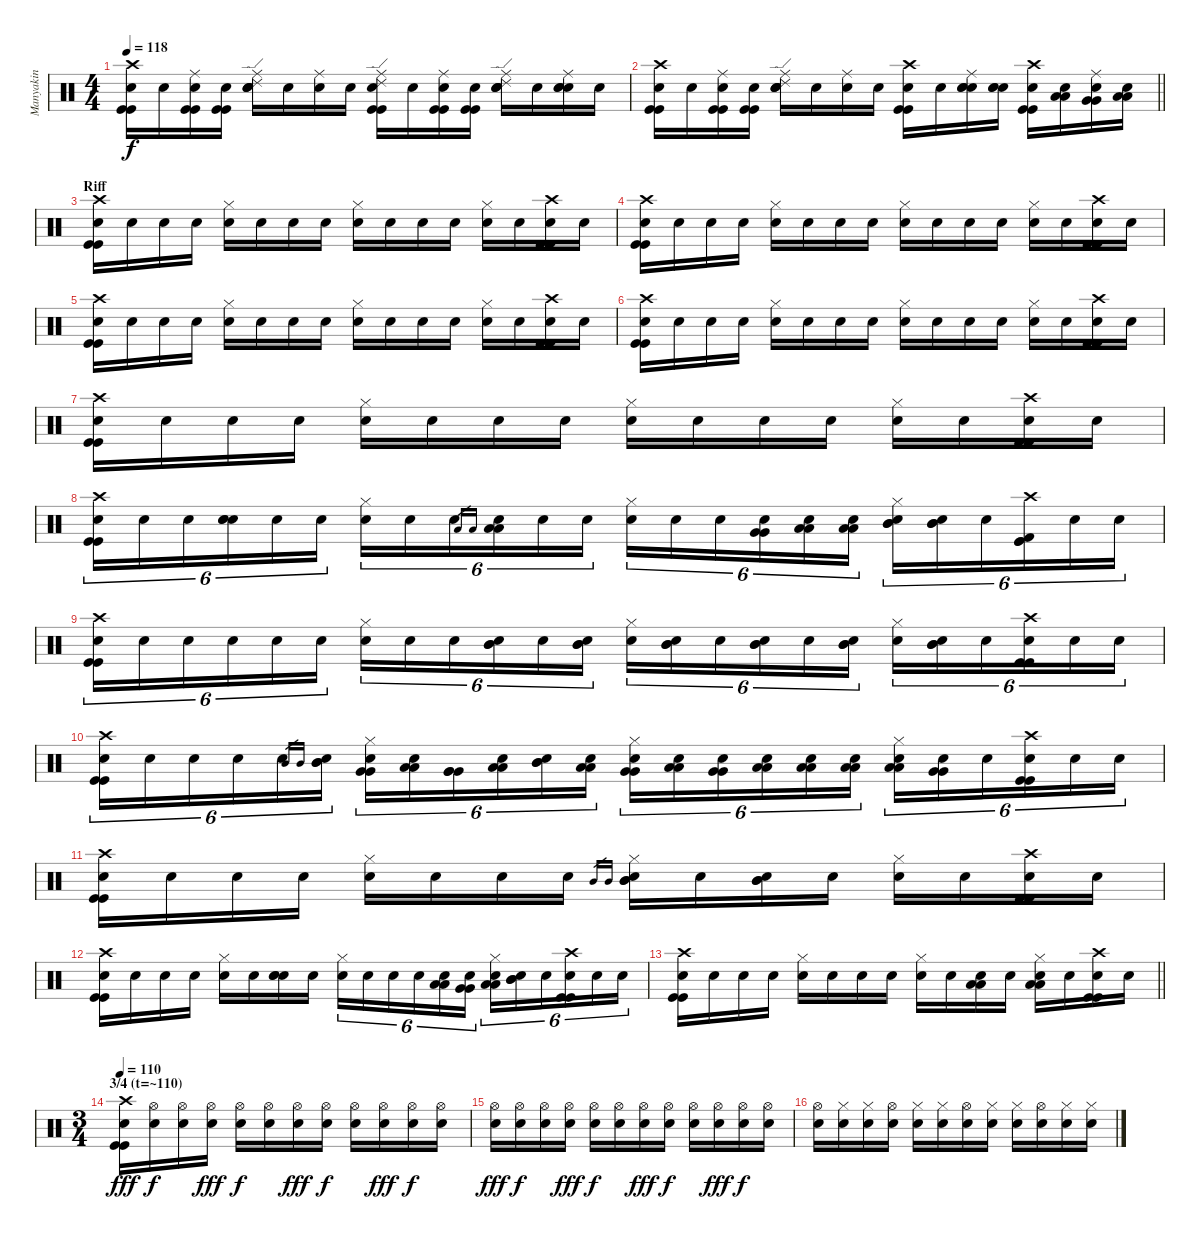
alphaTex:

\track ("Manyakin" "Manyakin") {instrument percussion}
\staff {score}
\articulation defaults
\ts (4 4)
\tempo 118
\clef neutral
\ks c
("Crash high (hit)" "Kick (hit)" "Kick (hit)" "Snare (hit)"{x}).16{dy f} "Snare (hit)"{x}.16 ("Ride (middle)" "Kick (hit)" "Kick (hit)" "Snare (hit)"{x}).16 ("Kick (hit)" "Kick (hit)" "Snare (hit)"{x}).16 ("Ride (middle)" "Ride (edge) 2" "Electric Snare (hit)" "Electric Snare (hit)" "Snare (hit)"{x}).16 "Snare (hit)"{x}.16 ("Ride (middle)" "Snare (hit)"{x}).16 "Snare (hit)"{x}.16 ("Ride (middle)" "Ride (edge) 2" "Kick (hit)" "Kick (hit)" "Snare (hit)"{x}).16 "Snare (hit)"{x}.16 ("Ride (middle)" "Kick (hit)" "Kick (hit)" "Snare (hit)"{x}).16 ("Kick (hit)" "Kick (hit)" "Snare (hit)"{x}).16 ("Ride (middle)" "Ride (edge) 2" "Electric Snare (hit)" "Electric Snare (hit)" "Snare (hit)"{x}).16 "Snare (hit)"{x}.16 ("Ride (middle)" "Electric Snare (hit)" "Electric Snare (hit)" "Snare (hit)"{x}).16 "Snare (hit)"{x}.16 |
\barLineRight lightlight
("Crash high (hit)" "Kick (hit)" "Kick (hit)" "Snare (hit)"{x}).16 "Snare (hit)"{x}.16 ("Ride (middle)" "Kick (hit)" "Kick (hit)" "Snare (hit)"{x}).16 ("Kick (hit)" "Kick (hit)" "Snare (hit)"{x}).16 ("Ride (middle)" "Ride (edge) 2" "Electric Snare (hit)" "Electric Snare (hit)" "Snare (hit)"{x}).16 "Snare (hit)"{x}.16 ("Ride (middle)" "Snare (hit)"{x}).16 "Snare (hit)"{x}.16 ("Crash high (hit)" "Kick (hit)" "Kick (hit)" "Snare (hit)"{x}).16 "Snare (hit)"{x}.16 ("Ride (middle)" "Electric Snare (hit)" "Electric Snare (hit)" "Snare (hit)"{x}).16 ("Electric Snare (hit)" "Electric Snare (hit)" "Snare (hit)"{x}).16 ("Crash high (hit)" "Kick (hit)" "Kick (hit)" "Snare (hit)"{x}).16 ("Low Tom (hit)" "Low Tom (hit)" "Snare (hit)"{x}).16 ("Ride (middle)" "Very Low Tom (hit)" "Very Low Tom (hit)" "Snare (hit)"{x}).16 ("Low Floor Tom (hit)" "Low Floor Tom (hit)" "Snare (hit)"{x}).16 |
\section ("" "Riff")
("Crash high (hit)" "Kick (hit)" "Kick (hit)" "Snare (hit)"{x}).16 "Snare (hit)"{x}.16 "Snare (hit)"{x}.16 "Snare (hit)"{x}.16 ("Hi-Hat (closed)" "Snare (hit)"{x}).16 "Snare (hit)"{x}.16 "Snare (hit)"{x}.16 "Snare (hit)"{x}.16 ("Hi-Hat (closed)" "Snare (hit)"{x}).16 "Snare (hit)"{x}.16 "Snare (hit)"{x}.16 "Snare (hit)"{x}.16 ("Hi-Hat (closed)" "Snare (hit)"{x}).16 "Snare (hit)"{x}.16 ("Crash high (hit)" "Kick (hit)" "Kick (hit)" "Snare (hit)"{x}).16 "Snare (hit)"{x}.16 |
("Crash high (hit)" "Kick (hit)" "Kick (hit)" "Snare (hit)"{x}).16 "Snare (hit)"{x}.16 "Snare (hit)"{x}.16 "Snare (hit)"{x}.16 ("Hi-Hat (closed)" "Snare (hit)"{x}).16 "Snare (hit)"{x}.16 "Snare (hit)"{x}.16 "Snare (hit)"{x}.16 ("Hi-Hat (closed)" "Snare (hit)"{x}).16 "Snare (hit)"{x}.16 "Snare (hit)"{x}.16 "Snare (hit)"{x}.16 ("Hi-Hat (closed)" "Snare (hit)"{x}).16 "Snare (hit)"{x}.16 ("Crash high (hit)" "Kick (hit)" "Kick (hit)" "Snare (hit)"{x}).16 "Snare (hit)"{x}.16 |
("Crash high (hit)" "Kick (hit)" "Kick (hit)" "Snare (hit)"{x}).16 "Snare (hit)"{x}.16 "Snare (hit)"{x}.16 "Snare (hit)"{x}.16 ("Hi-Hat (closed)" "Snare (hit)"{x}).16 "Snare (hit)"{x}.16 "Snare (hit)"{x}.16 "Snare (hit)"{x}.16 ("Hi-Hat (closed)" "Snare (hit)"{x}).16 "Snare (hit)"{x}.16 "Snare (hit)"{x}.16 "Snare (hit)"{x}.16 ("Hi-Hat (closed)" "Snare (hit)"{x}).16 "Snare (hit)"{x}.16 ("Crash high (hit)" "Kick (hit)" "Kick (hit)" "Snare (hit)"{x}).16 "Snare (hit)"{x}.16 |
("Crash high (hit)" "Kick (hit)" "Kick (hit)" "Snare (hit)"{x}).16 "Snare (hit)"{x}.16 "Snare (hit)"{x}.16 "Snare (hit)"{x}.16 ("Hi-Hat (closed)" "Snare (hit)"{x}).16 "Snare (hit)"{x}.16 "Snare (hit)"{x}.16 "Snare (hit)"{x}.16 ("Hi-Hat (closed)" "Snare (hit)"{x}).16 "Snare (hit)"{x}.16 "Snare (hit)"{x}.16 "Snare (hit)"{x}.16 ("Hi-Hat (closed)" "Snare (hit)"{x}).16 "Snare (hit)"{x}.16 ("Crash high (hit)" "Kick (hit)" "Kick (hit)" "Snare (hit)"{x}).16 "Snare (hit)"{x}.16 |
("Crash high (hit)" "Kick (hit)" "Kick (hit)" "Snare (hit)"{x}).16 "Snare (hit)"{x}.16 "Snare (hit)"{x}.16 "Snare (hit)"{x}.16 ("Hi-Hat (closed)" "Snare (hit)"{x}).16 "Snare (hit)"{x}.16 "Snare (hit)"{x}.16 "Snare (hit)"{x}.16 ("Hi-Hat (closed)" "Snare (hit)"{x}).16 "Snare (hit)"{x}.16 "Snare (hit)"{x}.16 "Snare (hit)"{x}.16 ("Hi-Hat (closed)" "Snare (hit)"{x}).16 "Snare (hit)"{x}.16 ("Crash high (hit)" "Kick (hit)" "Kick (hit)" "Snare (hit)"{x}).16 "Snare (hit)"{x}.16 |
("Crash high (hit)" "Kick (hit)" "Kick (hit)" "Snare (hit)"{x}).16{tu (6 4)} "Snare (hit)"{x}.16{tu (6 4)} "Snare (hit)"{x}.16{tu (6 4)} ("Electric Snare (hit)" "Electric Snare (hit)" "Snare (hit)"{x}).16{tu (6 4)} "Snare (hit)"{x}.16{tu (6 4)} "Snare (hit)"{x}.16{tu (6 4)} ("Hi-Hat (closed)" "Snare (hit)"{x}).16{tu (6 4)} "Snare (hit)"{x}.16{tu (6 4)} "Snare (hit)"{x}.16{tu (6 4)} "Low Tom (hit)".16{gr} "Low Tom (hit)".16{gr} ("Low Tom (hit)" "Low Tom (hit)" "Snare (hit)"{x}).16{tu (6 4)} "Snare (hit)"{x}.16{tu (6 4)} "Snare (hit)"{x}.16{tu (6 4)} ("Hi-Hat (closed)" "Snare (hit)"{x}).16{tu (6 4)} "Snare (hit)"{x}.16{tu (6 4)} "Snare (hit)"{x}.16{tu (6 4)} ("Very Low Tom (hit)" "Very Low Tom (hit)" "Snare (hit)"{x}).16{tu (6 4)} ("Low Tom (hit)" "Low Tom (hit)" "Snare (hit)"{x}).16{tu (6 4)} ("Low Tom (hit)" "Low Tom (hit)" "Snare (hit)"{x}).16{tu (6 4)} ("Hi-Hat (closed)" "Mid Tom (hit)" "Mid Tom (hit)" "Snare (hit)"{x}).16{tu (6 4)} ("Mid Tom (hit)" "Mid Tom (hit)" "Snare (hit)"{x}).16{tu (6 4)} "Snare (hit)"{x}.16{tu (6 4)} ("Crash high (hit)" "Kick (hit)" "Kick (hit)" "Kick (hit) 2"{x}).16{tu (6 4)} "Snare (hit)"{x}.16{tu (6 4)} "Snare (hit)"{x}.16{tu (6 4)} |
("Crash high (hit)" "Kick (hit)" "Kick (hit)" "Snare (hit)"{x}).16{tu (6 4)} "Snare (hit)"{x}.16{tu (6 4)} "Snare (hit)"{x}.16{tu (6 4)} "Snare (hit)"{x}.16{tu (6 4)} "Snare (hit)"{x}.16{tu (6 4)} "Snare (hit)"{x}.16{tu (6 4)} ("Hi-Hat (closed)" "Snare (hit)"{x}).16{tu (6 4)} "Snare (hit)"{x}.16{tu (6 4)} "Snare (hit)"{x}.16{tu (6 4)} ("Mid Tom (hit)" "Mid Tom (hit)" "Snare (hit)"{x}).16{tu (6 4)} "Snare (hit)"{x}.16{tu (6 4)} ("Mid Tom (hit)" "Mid Tom (hit)" "Snare (hit)"{x}).16{tu (6 4)} ("Hi-Hat (closed)" "Snare (hit)"{x}).16{tu (6 4)} ("Mid Tom (hit)" "Mid Tom (hit)" "Snare (hit)"{x}).16{tu (6 4)} "Snare (hit)"{x}.16{tu (6 4)} ("Mid Tom (hit)" "Mid Tom (hit)" "Snare (hit)"{x}).16{tu (6 4)} "Snare (hit)"{x}.16{tu (6 4)} ("Mid Tom (hit)" "Mid Tom (hit)" "Snare (hit)"{x}).16{tu (6 4)} ("Hi-Hat (closed)" "Snare (hit)"{x}).16{tu (6 4)} ("Mid Tom (hit)" "Mid Tom (hit)" "Snare (hit)"{x}).16{tu (6 4)} "Snare (hit)"{x}.16{tu (6 4)} ("Crash high (hit)" "Kick (hit)" "Kick (hit)" "Snare (hit)"{x}).16{tu (6 4)} "Snare (hit)"{x}.16{tu (6 4)} "Snare (hit)"{x}.16{tu (6 4)} |
("Crash high (hit)" "Kick (hit)" "Kick (hit)" "Snare (hit)"{x}).16{tu (6 4)} "Snare (hit)"{x}.16{tu (6 4)} "Snare (hit)"{x}.16{tu (6 4)} "Snare (hit)"{x}.16{tu (6 4)} "Snare (hit)"{x}.16{tu (6 4)} "Mid Tom (hit)".16{gr} "Mid Tom (hit)".16{gr} ("Mid Tom (hit)" "Mid Tom (hit)" "Snare (hit)"{x}).16{tu (6 4)} ("Hi-Hat (closed)" "Very Low Tom (hit)" "Very Low Tom (hit)" "Snare (hit)"{x}).16{tu (6 4)} ("Low Tom (hit)" "Low Tom (hit)" "Snare (hit)"{x}).16{tu (6 4)} ("Very Low Tom (hit)" "Very Low Tom (hit)" "Very Low Tom (hit)"{x}).16{tu (6 4)} ("Low Tom (hit)" "Low Tom (hit)" "Snare (hit)"{x}).16{tu (6 4)} ("Mid Tom (hit)" "Mid Tom (hit)" "Snare (hit)"{x}).16{tu (6 4)} ("Low Tom (hit)" "Low Tom (hit)" "Snare (hit)"{x}).16{tu (6 4)} ("Hi-Hat (closed)" "Very Low Tom (hit)" "Very Low Tom (hit)" "Snare (hit)"{x}).16{tu (6 4)} ("Low Floor Tom (hit)" "Low Floor Tom (hit)" "Snare (hit)"{x}).16{tu (6 4)} ("Very Low Tom (hit)" "Very Low Tom (hit)" "Snare (hit)"{x}).16{tu (6 4)} ("Low Tom (hit)" "Low Tom (hit)" "Snare (hit)"{x}).16{tu (6 4)} ("Low Floor Tom (hit)" "Low Floor Tom (hit)" "Snare (hit)"{x}).16{tu (6 4)} ("Low Tom (hit)" "Low Tom (hit)" "Snare (hit)"{x}).16{tu (6 4)} ("Hi-Hat (closed)" "Low Tom (hit)" "Low Tom (hit)" "Snare (hit)"{x}).16{tu (6 4)} ("Very Low Tom (hit)" "Very Low Tom (hit)" "Snare (hit)"{x}).16{tu (6 4)} "Snare (hit)"{x}.16{tu (6 4)} ("Crash high (hit)" "Kick (hit)" "Kick (hit)" "Snare (hit)"{x}).16{tu (6 4)} "Snare (hit)"{x}.16{tu (6 4)} "Snare (hit)"{x}.16{tu (6 4)} |
("Crash high (hit)" "Kick (hit)" "Kick (hit)" "Snare (hit)"{x}).16 "Snare (hit)"{x}.16 "Snare (hit)"{x}.16 "Snare (hit)"{x}.16 ("Hi-Hat (closed)" "Snare (hit)"{x}).16 "Snare (hit)"{x}.16 "Snare (hit)"{x}.16 "Snare (hit)"{x}.16 "Mid Tom (hit)".16{gr} "Mid Tom (hit)".16{gr} ("Hi-Hat (closed)" "Mid Tom (hit)" "Mid Tom (hit)" "Snare (hit)"{x}).16 "Snare (hit)"{x}.16 ("Mid Tom (hit)" "Mid Tom (hit)" "Snare (hit)"{x}).16 "Snare (hit)"{x}.16 ("Hi-Hat (closed)" "Snare (hit)"{x}).16 "Snare (hit)"{x}.16 ("Crash high (hit)" "Kick (hit)" "Kick (hit)" "Snare (hit)"{x}).16 "Snare (hit)"{x}.16 |
("Crash high (hit)" "Kick (hit)" "Kick (hit)" "Snare (hit)"{x}).16 "Snare (hit)"{x}.16 "Snare (hit)"{x}.16 "Snare (hit)"{x}.16 ("Hi-Hat (closed)" "Snare (hit)"{x}).16 "Snare (hit)"{x}.16 ("Electric Snare (hit)" "Electric Snare (hit)" "Snare (hit)"{x}).16 "Snare (hit)"{x}.16 ("Hi-Hat (closed)" "Snare (hit)"{x}).16{tu (6 4)} "Snare (hit)"{x}.16{tu (6 4)} "Snare (hit)"{x}.16{tu (6 4)} "Snare (hit)"{x}.16{tu (6 4)} ("Low Floor Tom (hit)" "Low Floor Tom (hit)" "Snare (hit)"{x}).16{tu (6 4)} ("Very Low Tom (hit)" "Very Low Tom (hit)" "Snare (hit)"{x}).16{tu (6 4)} ("Hi-Hat (closed)" "Low Tom (hit)" "Low Tom (hit)" "Snare (hit)"{x}).16{tu (6 4)} ("Mid Tom (hit)" "Mid Tom (hit)" "Snare (hit)"{x}).16{tu (6 4)} "Snare (hit)"{x}.16{tu (6 4)} ("Crash high (hit)" "Kick (hit)" "Kick (hit)" "Snare (hit)"{x}).16{tu (6 4)} "Snare (hit)"{x}.16{tu (6 4)} "Snare (hit)"{x}.16{tu (6 4)} |
\barLineRight lightlight
("Crash high (hit)" "Kick (hit)" "Kick (hit)" "Snare (hit)"{x}).16 "Snare (hit)"{x}.16 "Snare (hit)"{x}.16 "Snare (hit)"{x}.16 ("Hi-Hat (closed)" "Snare (hit)"{x}).16 "Snare (hit)"{x}.16 "Snare (hit)"{x}.16 "Snare (hit)"{x}.16 ("Hi-Hat (closed)" "Snare (hit)"{x}).16 "Snare (hit)"{x}.16 ("Low Tom (hit)" "Low Tom (hit)" "Snare (hit)"{x}).16 "Snare (hit)"{x}.16 ("Hi-Hat (closed)" "Low Tom (hit)" "Low Tom (hit)" "Snare (hit)"{x}).16 "Snare (hit)"{x}.16 ("Crash high (hit)" "Kick (hit)" "Kick (hit)" "Snare (hit)"{x}).16 "Snare (hit)"{x}.16 |
\ts (3 4)
\section ("" "3/4 (t=~110)")
\tempo 110
("Crash high (hit)" "Kick (hit)" "Kick (hit)" "Snare (hit)"{x}).16{dy fff} ("Hi-Hat (open)" "Snare (hit)"{x}).16{dy f} ("Hi-Hat (open)" "Snare (hit)"{x}).16 ("Hi-Hat (open)" "Snare (hit)"{x}).16{dy fff} ("Hi-Hat (open)" "Snare (hit)"{x}).16{dy f} ("Hi-Hat (open)" "Snare (hit)"{x}).16 ("Hi-Hat (open)" "Snare (hit)"{x}).16{dy fff} ("Hi-Hat (open)" "Snare (hit)"{x}).16{dy f} ("Hi-Hat (open)" "Snare (hit)"{x}).16 ("Hi-Hat (open)" "Snare (hit)"{x}).16{dy fff} ("Hi-Hat (open)" "Snare (hit)"{x}).16{dy f} ("Hi-Hat (open)" "Snare (hit)"{x}).16 |
("Hi-Hat (open)" "Snare (hit)"{x}).16{dy fff} ("Hi-Hat (open)" "Snare (hit)"{x}).16{dy f} ("Hi-Hat (open)" "Snare (hit)"{x}).16 ("Hi-Hat (open)" "Snare (hit)"{x}).16{dy fff} ("Hi-Hat (open)" "Snare (hit)"{x}).16{dy f} ("Hi-Hat (open)" "Snare (hit)"{x}).16 ("Hi-Hat (open)" "Snare (hit)"{x}).16{dy fff} ("Hi-Hat (open)" "Snare (hit)"{x}).16{dy f} ("Hi-Hat (open)" "Snare (hit)"{x}).16 ("Hi-Hat (open)" "Snare (hit)"{x}).16{dy fff} ("Hi-Hat (open)" "Snare (hit)"{x}).16{dy f} ("Hi-Hat (open)" "Snare (hit)"{x}).16 |
("Hi-Hat (open)" "Snare (hit)"{x}).16 ("Hi-Hat (closed)" "Snare (hit)"{x}).16 ("Hi-Hat (closed)" "Snare (hit)"{x}).16 ("Hi-Hat (open)" "Snare (hit)"{x}).16 ("Hi-Hat (closed)" "Snare (hit)"{x}).16 ("Hi-Hat (closed)" "Snare (hit)"{x}).16 ("Hi-Hat (open)" "Snare (hit)"{x}).16 ("Hi-Hat (closed)" "Snare (hit)"{x}).16 ("Hi-Hat (closed)" "Snare (hit)"{x}).16 ("Hi-Hat (open)" "Snare (hit)"{x}).16 ("Hi-Hat (closed)" "Snare (hit)"{x}).16 ("Hi-Hat (closed)" "Snare (hit)"{x}).16
